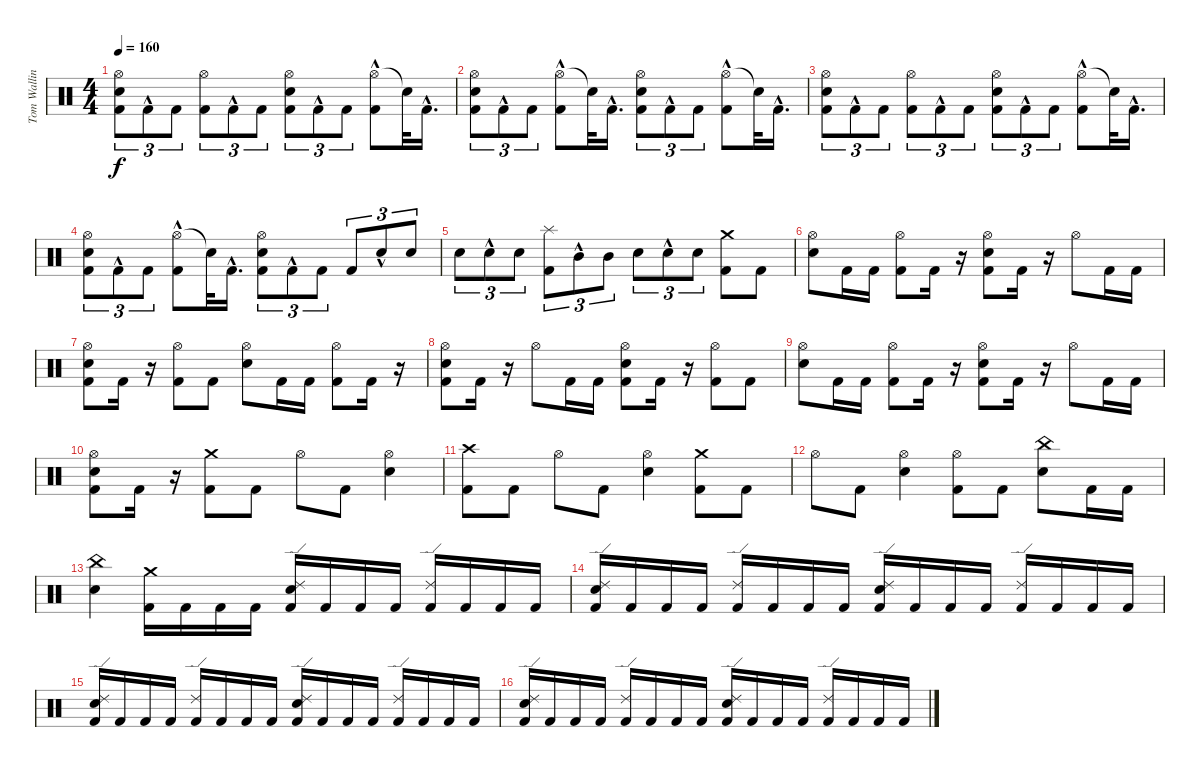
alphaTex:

\track ("Tom Walling (Drums)" "Tom Wallin") {instrument percussion}
\staff {score}
\articulation defaults
\ts (4 4)
\tempo 160
\clef neutral
\ks c
("Hi-Hat (open)" "Electric Snare (hit)" "Kick (hit) 2").8{tu (3 2) dy f} "Kick (hit) 2"{hac}.8{tu (3 2)} "Kick (hit) 2".8{tu (3 2)} ("Hi-Hat (open)" "Kick (hit) 2").8{tu (3 2)} "Kick (hit) 2"{hac}.8{tu (3 2)} "Kick (hit) 2".8{tu (3 2)} ("Hi-Hat (open)" "Electric Snare (hit)" "Kick (hit) 2").8{tu (3 2)} "Kick (hit) 2"{hac}.8{tu (3 2)} "Kick (hit) 2".8{tu (3 2)} ("Hi-Hat (open)" "Kick (hit) 2"{hac}).8 "Snare (hit)"{t}.32 "Kick (hit) 2"{hac}.16{d} |
("Hi-Hat (open)" "Electric Snare (hit)" "Kick (hit) 2").8{tu (3 2)} "Kick (hit) 2"{hac}.8{tu (3 2)} "Kick (hit) 2".8{tu (3 2)} ("Hi-Hat (open)" "Kick (hit) 2"{hac}).8 "Snare (hit)"{t}.32 "Kick (hit) 2"{hac}.16{d} ("Hi-Hat (open)" "Electric Snare (hit)" "Kick (hit) 2").8{tu (3 2)} "Kick (hit) 2"{hac}.8{tu (3 2)} "Kick (hit) 2".8{tu (3 2)} ("Hi-Hat (open)" "Kick (hit) 2"{hac}).8 "Snare (hit)"{t}.32 "Kick (hit) 2"{hac}.16{d} |
("Hi-Hat (open)" "Electric Snare (hit)" "Kick (hit) 2").8{tu (3 2)} "Kick (hit) 2"{hac}.8{tu (3 2)} "Kick (hit) 2".8{tu (3 2)} ("Hi-Hat (open)" "Kick (hit) 2").8{tu (3 2)} "Kick (hit) 2"{hac}.8{tu (3 2)} "Kick (hit) 2".8{tu (3 2)} ("Hi-Hat (open)" "Electric Snare (hit)" "Kick (hit) 2").8{tu (3 2)} "Kick (hit) 2"{hac}.8{tu (3 2)} "Kick (hit) 2".8{tu (3 2)} ("Hi-Hat (open)" "Kick (hit) 2"{hac}).8 "Snare (hit)"{t}.32 "Kick (hit) 2"{hac}.16{d} |
("Hi-Hat (open)" "Electric Snare (hit)" "Kick (hit) 2").8{tu (3 2)} "Kick (hit) 2"{hac}.8{tu (3 2)} "Kick (hit) 2".8{tu (3 2)} ("Hi-Hat (open)" "Kick (hit) 2"{hac}).8 "Snare (hit)"{t}.32 "Kick (hit) 2"{hac}.16{d} ("Hi-Hat (open)" "Electric Snare (hit)" "Kick (hit) 2").8{tu (3 2)} "Kick (hit) 2"{hac}.8{tu (3 2)} "Kick (hit) 2".8{tu (3 2)} "Kick (hit) 2".8{tu (3 2)} "Electric Snare (hit)"{hac}.8{tu (3 2)} "Electric Snare (hit)".8{tu (3 2)} |
"Electric Snare (hit)".8{tu (3 2)} "Electric Snare (hit)"{hac}.8{tu (3 2)} "Electric Snare (hit)".8{tu (3 2)} ("Splash (hit)" "Kick (hit) 2").8{tu (3 2)} "Mid Tom (hit)"{hac}.8{tu (3 2)} "Mid Tom (hit)".8{tu (3 2)} "Electric Snare (hit)".8{tu (3 2)} "Electric Snare (hit)"{hac}.8{tu (3 2)} "Electric Snare (hit)".8{tu (3 2)} ("Kick (hit) 2" "Crash medium (hit)").8 "Kick (hit) 2".8 |
("Electric Snare (hit)" "Hi-Hat (open)").8 "Kick (hit) 2".16 "Kick (hit) 2".16 ("Kick (hit) 2" "Hi-Hat (open)").8 "Kick (hit) 2".16 r.16 ("Kick (hit) 2" "Electric Snare (hit)" "Hi-Hat (open)").8 "Kick (hit) 2".16 r.16 "Hi-Hat (open)".8 "Kick (hit) 2".16 "Kick (hit) 2".16 |
("Kick (hit) 2" "Electric Snare (hit)" "Hi-Hat (open)").8 "Kick (hit) 2".16 r.16 ("Hi-Hat (open)" "Kick (hit) 2").8 "Kick (hit) 2".8 ("Electric Snare (hit)" "Hi-Hat (open)").8 "Kick (hit) 2".16 "Kick (hit) 2".16 ("Kick (hit) 2" "Hi-Hat (open)").8 "Kick (hit) 2".16 r.16 |
("Kick (hit) 2" "Electric Snare (hit)" "Hi-Hat (open)").8 "Kick (hit) 2".16 r.16 "Hi-Hat (open)".8 "Kick (hit) 2".16 "Kick (hit) 2".16 ("Kick (hit) 2" "Electric Snare (hit)" "Hi-Hat (open)").8 "Kick (hit) 2".16 r.16 ("Hi-Hat (open)" "Kick (hit) 2").8 "Kick (hit) 2".8 |
("Electric Snare (hit)" "Hi-Hat (open)").8 "Kick (hit) 2".16 "Kick (hit) 2".16 ("Kick (hit) 2" "Hi-Hat (open)").8 "Kick (hit) 2".16 r.16 ("Kick (hit) 2" "Electric Snare (hit)" "Hi-Hat (open)").8 "Kick (hit) 2".16 r.16 "Hi-Hat (open)".8 "Kick (hit) 2".16 "Kick (hit) 2".16 |
("Kick (hit) 2" "Electric Snare (hit)" "Hi-Hat (open)").8 "Kick (hit) 2".16 r.16 ("Crash medium (hit)" "Kick (hit) 2").8 "Kick (hit) 2".8 "Hi-Hat (open)".8 "Kick (hit) 2".8 ("Hi-Hat (open)" "Electric Snare (hit)").4 |
("Crash high (hit)" "Kick (hit) 2").8 "Kick (hit) 2".8 "Hi-Hat (open)".8 "Kick (hit) 2".8 ("Hi-Hat (open)" "Electric Snare (hit)").4 ("Crash medium (hit)" "Kick (hit) 2").8 "Kick (hit) 2".8 |
"Hi-Hat (open)".8 "Kick (hit) 2".8 ("Hi-Hat (open)" "Electric Snare (hit)").4 ("Hi-Hat (open)" "Kick (hit) 2").8 "Kick (hit) 2".8 ("China (hit)" "Electric Snare (hit)").8 "Kick (hit) 2".16 "Kick (hit) 2".16 |
("China (hit)" "Electric Snare (hit)").4 ("Kick (hit) 2" "Crash medium (hit)").16 "Kick (hit) 2".16 "Kick (hit) 2".16 "Kick (hit) 2".16 ("Electric Snare (hit)" "Kick (hit) 2" "Ride (edge) 2").16 "Kick (hit) 2".16 "Kick (hit) 2".16 "Kick (hit) 2".16 ("Kick (hit) 2" "Ride (edge) 2").16 "Kick (hit) 2".16 "Kick (hit) 2".16 "Kick (hit) 2".16 |
("Electric Snare (hit)" "Kick (hit) 2" "Ride (edge) 2").16 "Kick (hit) 2".16 "Kick (hit) 2".16 "Kick (hit) 2".16 ("Kick (hit) 2" "Ride (edge) 2").16 "Kick (hit) 2".16 "Kick (hit) 2".16 "Kick (hit) 2".16 ("Electric Snare (hit)" "Kick (hit) 2" "Ride (edge) 2").16 "Kick (hit) 2".16 "Kick (hit) 2".16 "Kick (hit) 2".16 ("Ride (edge) 2" "Kick (hit) 2").16 "Kick (hit) 2".16 "Kick (hit) 2".16 "Kick (hit) 2".16 |
("Electric Snare (hit)" "Kick (hit) 2" "Ride (edge) 2").16 "Kick (hit) 2".16 "Kick (hit) 2".16 "Kick (hit) 2".16 ("Kick (hit) 2" "Ride (edge) 2").16 "Kick (hit) 2".16 "Kick (hit) 2".16 "Kick (hit) 2".16 ("Electric Snare (hit)" "Kick (hit) 2" "Ride (edge) 2").16 "Kick (hit) 2".16 "Kick (hit) 2".16 "Kick (hit) 2".16 ("Kick (hit) 2" "Ride (edge) 2").16 "Kick (hit) 2".16 "Kick (hit) 2".16 "Kick (hit) 2".16 |
("Electric Snare (hit)" "Kick (hit) 2" "Ride (edge) 2").16 "Kick (hit) 2".16 "Kick (hit) 2".16 "Kick (hit) 2".16 ("Ride (edge) 2" "Kick (hit) 2").16 "Kick (hit) 2".16 "Kick (hit) 2".16 "Kick (hit) 2".16 ("Electric Snare (hit)" "Kick (hit) 2" "Ride (edge) 2").16 "Kick (hit) 2".16 "Kick (hit) 2".16 "Kick (hit) 2".16 ("Kick (hit) 2" "Ride (edge) 2").16 "Kick (hit) 2".16 "Kick (hit) 2".16 "Kick (hit) 2".16
